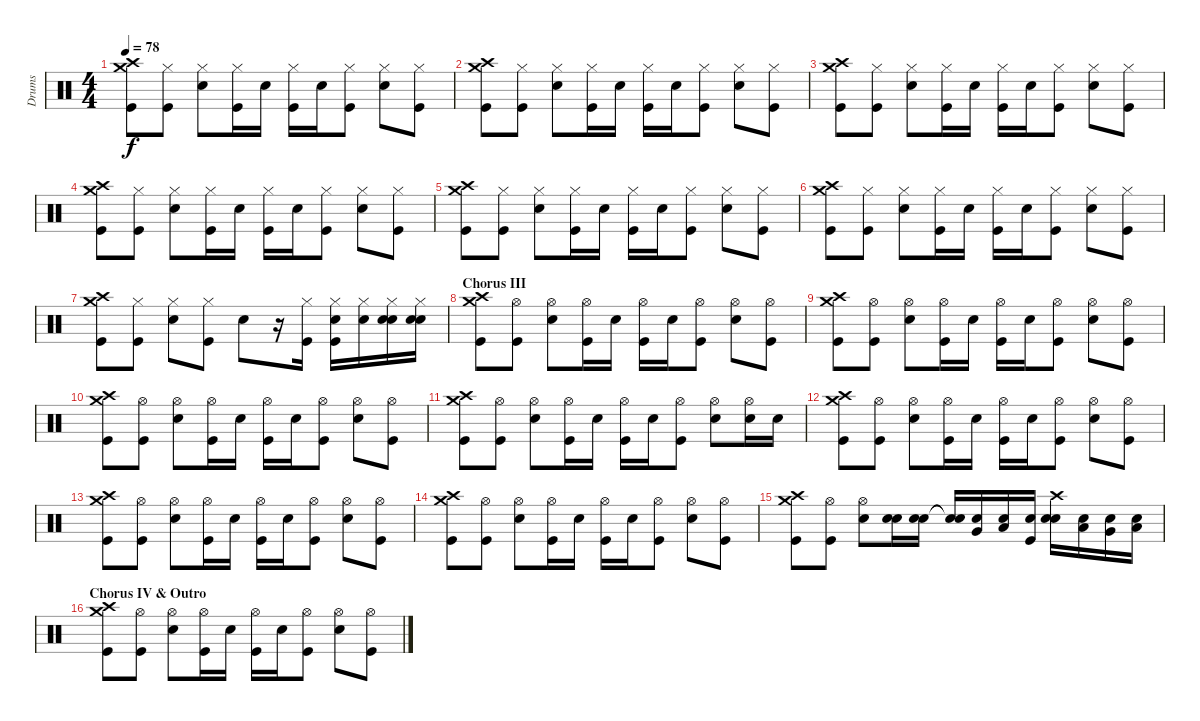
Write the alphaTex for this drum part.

\track ("Drums" "Drums") {instrument percussion}
\staff {score}
\articulation defaults
\ts (4 4)
\tempo 78
\clef neutral
\ks c
("Crash high (hit)" "Crash medium (hit)" "Kick (hit)").8{dy f} ("Hi-Hat (closed)" "Kick (hit)").8 ("Electric Snare (hit)" "Hi-Hat (closed)").8 ("Hi-Hat (closed)" "Kick (hit)").16 "Electric Snare (hit)".16 ("Hi-Hat (closed)" "Kick (hit)").16 "Electric Snare (hit)".16 ("Hi-Hat (closed)" "Kick (hit)").8 ("Electric Snare (hit)" "Hi-Hat (closed)").8 ("Hi-Hat (closed)" "Kick (hit)").8 |
("Crash high (hit)" "Crash medium (hit)" "Kick (hit)").8 ("Hi-Hat (closed)" "Kick (hit)").8 ("Electric Snare (hit)" "Hi-Hat (closed)").8 ("Hi-Hat (closed)" "Kick (hit)").16 "Electric Snare (hit)".16 ("Hi-Hat (closed)" "Kick (hit)").16 "Electric Snare (hit)".16 ("Hi-Hat (closed)" "Kick (hit)").8 ("Electric Snare (hit)" "Hi-Hat (closed)").8 ("Hi-Hat (closed)" "Kick (hit)").8 |
("Crash high (hit)" "Crash medium (hit)" "Kick (hit)").8 ("Hi-Hat (closed)" "Kick (hit)").8 ("Electric Snare (hit)" "Hi-Hat (closed)").8 ("Hi-Hat (closed)" "Kick (hit)").16 "Electric Snare (hit)".16 ("Hi-Hat (closed)" "Kick (hit)").16 "Electric Snare (hit)".16 ("Hi-Hat (closed)" "Kick (hit)").8 ("Electric Snare (hit)" "Hi-Hat (closed)").8 ("Hi-Hat (closed)" "Kick (hit)").8 |
("Crash high (hit)" "Crash medium (hit)" "Kick (hit)").8 ("Hi-Hat (closed)" "Kick (hit)").8 ("Electric Snare (hit)" "Hi-Hat (closed)").8 ("Hi-Hat (closed)" "Kick (hit)").16 "Electric Snare (hit)".16 ("Hi-Hat (closed)" "Kick (hit)").16 "Electric Snare (hit)".16 ("Hi-Hat (closed)" "Kick (hit)").8 ("Electric Snare (hit)" "Hi-Hat (closed)").8 ("Hi-Hat (closed)" "Kick (hit)").8 |
("Crash high (hit)" "Crash medium (hit)" "Kick (hit)").8 ("Hi-Hat (closed)" "Kick (hit)").8 ("Electric Snare (hit)" "Hi-Hat (closed)").8 ("Hi-Hat (closed)" "Kick (hit)").16 "Electric Snare (hit)".16 ("Hi-Hat (closed)" "Kick (hit)").16 "Electric Snare (hit)".16 ("Hi-Hat (closed)" "Kick (hit)").8 ("Electric Snare (hit)" "Hi-Hat (closed)").8 ("Hi-Hat (closed)" "Kick (hit)").8 |
("Crash high (hit)" "Crash medium (hit)" "Kick (hit)").8 ("Hi-Hat (closed)" "Kick (hit)").8 ("Electric Snare (hit)" "Hi-Hat (closed)").8 ("Hi-Hat (closed)" "Kick (hit)").16 "Electric Snare (hit)".16 ("Hi-Hat (closed)" "Kick (hit)").16 "Electric Snare (hit)".16 ("Hi-Hat (closed)" "Kick (hit)").8 ("Electric Snare (hit)" "Hi-Hat (closed)").8 ("Hi-Hat (closed)" "Kick (hit)").8 |
("Crash high (hit)" "Crash medium (hit)" "Kick (hit)").8 ("Hi-Hat (closed)" "Kick (hit)").8 ("Electric Snare (hit)" "Hi-Hat (closed)").8 ("Hi-Hat (closed)" "Kick (hit)").8 "Electric Snare (hit)".8 r.16 ("Hi-Hat (closed)" "Kick (hit)").16 ("Snare (hit) 2" "Hi-Hat (closed)" "Kick (hit)").16 ("Snare (hit) 2" "Hi-Hat (closed)").16 ("Snare (hit) 2" "Electric Snare (hit)" "Hi-Hat (closed)").16 ("Snare (hit) 2" "Electric Snare (hit)" "Hi-Hat (closed)").16 |
\section ("" "Chorus III")
("Crash high (hit)" "Crash medium (hit)" "Kick (hit)").8 ("Hi-Hat (open)" "Kick (hit)").8 ("Electric Snare (hit)" "Hi-Hat (open)").8 ("Hi-Hat (open)" "Kick (hit)").16 "Electric Snare (hit)".16 ("Hi-Hat (open)" "Kick (hit)").16 "Electric Snare (hit)".16 ("Hi-Hat (open)" "Kick (hit)").8 ("Electric Snare (hit)" "Hi-Hat (open)").8 ("Hi-Hat (open)" "Kick (hit)").8 |
("Crash high (hit)" "Crash medium (hit)" "Kick (hit)").8 ("Hi-Hat (open)" "Kick (hit)").8 ("Electric Snare (hit)" "Hi-Hat (open)").8 ("Hi-Hat (open)" "Kick (hit)").16 "Electric Snare (hit)".16 ("Hi-Hat (open)" "Kick (hit)").16 "Electric Snare (hit)".16 ("Hi-Hat (open)" "Kick (hit)").8 ("Electric Snare (hit)" "Hi-Hat (open)").8 ("Hi-Hat (open)" "Kick (hit)").8 |
("Crash high (hit)" "Crash medium (hit)" "Kick (hit)").8 ("Hi-Hat (open)" "Kick (hit)").8 ("Electric Snare (hit)" "Hi-Hat (open)").8 ("Hi-Hat (open)" "Kick (hit)").16 "Electric Snare (hit)".16 ("Hi-Hat (open)" "Kick (hit)").16 "Electric Snare (hit)".16 ("Hi-Hat (open)" "Kick (hit)").8 ("Electric Snare (hit)" "Hi-Hat (open)").8 ("Hi-Hat (open)" "Kick (hit)").8 |
("Crash high (hit)" "Crash medium (hit)" "Kick (hit)").8 ("Hi-Hat (open)" "Kick (hit)").8 ("Electric Snare (hit)" "Hi-Hat (open)").8 ("Hi-Hat (open)" "Kick (hit)").16 "Electric Snare (hit)".16 ("Hi-Hat (open)" "Kick (hit)").16 "Electric Snare (hit)".16 ("Hi-Hat (open)" "Kick (hit)").8 ("Electric Snare (hit)" "Hi-Hat (open)").8 ("Electric Snare (hit)" "Hi-Hat (open)").16 "Electric Snare (hit)".16 |
("Crash high (hit)" "Crash medium (hit)" "Kick (hit)").8 ("Hi-Hat (open)" "Kick (hit)").8 ("Electric Snare (hit)" "Hi-Hat (open)").8 ("Hi-Hat (open)" "Kick (hit)").16 "Electric Snare (hit)".16 ("Hi-Hat (open)" "Kick (hit)").16 "Electric Snare (hit)".16 ("Hi-Hat (open)" "Kick (hit)").8 ("Electric Snare (hit)" "Hi-Hat (open)").8 ("Hi-Hat (open)" "Kick (hit)").8 |
("Crash high (hit)" "Crash medium (hit)" "Kick (hit)").8 ("Hi-Hat (open)" "Kick (hit)").8 ("Electric Snare (hit)" "Hi-Hat (open)").8 ("Hi-Hat (open)" "Kick (hit)").16 "Electric Snare (hit)".16 ("Hi-Hat (open)" "Kick (hit)").16 "Electric Snare (hit)".16 ("Hi-Hat (open)" "Kick (hit)").8 ("Electric Snare (hit)" "Hi-Hat (open)").8 ("Hi-Hat (open)" "Kick (hit)").8 |
("Crash high (hit)" "Crash medium (hit)" "Kick (hit)").8 ("Hi-Hat (open)" "Kick (hit)").8 ("Electric Snare (hit)" "Hi-Hat (open)").8 ("Hi-Hat (open)" "Kick (hit)").16 "Electric Snare (hit)".16 ("Hi-Hat (open)" "Kick (hit)").16 "Electric Snare (hit)".16 ("Hi-Hat (open)" "Kick (hit)").8 ("Electric Snare (hit)" "Hi-Hat (open)").8 ("Hi-Hat (open)" "Kick (hit)").8 |
("Crash high (hit)" "Crash medium (hit)" "Kick (hit)").8 ("Hi-Hat (open)" "Kick (hit)").8 ("Electric Snare (hit)" "Hi-Hat (open)").8 ("Electric Snare (hit)" "Snare (hit) 2").16 ("Electric Snare (hit)" "Snare (hit) 2").16 ("Snare (hit)"{t} "Snare (hit)"{t}).16 ("Very Low Tom (hit)" "Snare (hit) 2").16 ("Low Floor Tom (hit)" "Snare (hit) 2").16 ("Snare (hit) 2" "Kick (hit)").16 ("Crash high (hit)" "Electric Snare (hit)" "Snare (hit) 2").16 ("Low Tom (hit)" "Snare (hit) 2").16 ("Very Low Tom (hit)" "Snare (hit) 2").16 ("Low Floor Tom (hit)" "Snare (hit) 2").16 |
\section ("" "Chorus IV & Outro")
("Crash high (hit)" "Crash medium (hit)" "Kick (hit)").8 ("Hi-Hat (open)" "Kick (hit)").8 ("Electric Snare (hit)" "Hi-Hat (open)").8 ("Hi-Hat (open)" "Kick (hit)").16 "Electric Snare (hit)".16 ("Hi-Hat (open)" "Kick (hit)").16 "Electric Snare (hit)".16 ("Hi-Hat (open)" "Kick (hit)").8 ("Electric Snare (hit)" "Hi-Hat (open)").8 ("Hi-Hat (open)" "Kick (hit)").8
